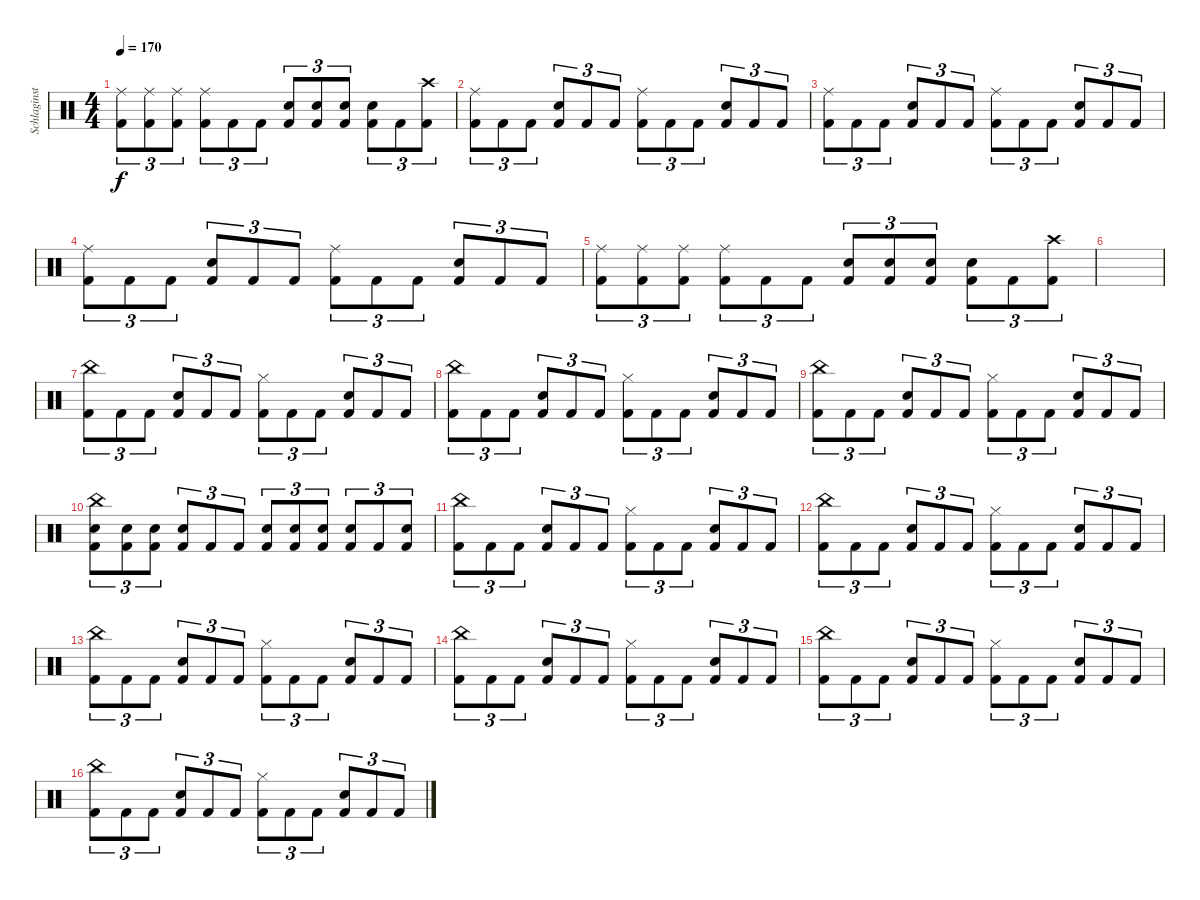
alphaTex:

\track ("Schlaginstrumente - Auswahl" "Schlaginst") {instrument percussion}
\staff {score}
\articulation defaults
\ts (4 4)
\tempo 170
\clef neutral
\ks c
("Kick (hit) 2" "Ride (middle)").8{tu (3 2) dy f} ("Kick (hit) 2" "Ride (middle)").8{tu (3 2)} ("Kick (hit) 2" "Ride (middle)").8{tu (3 2)} ("Kick (hit) 2" "Ride (middle)").8{tu (3 2)} "Kick (hit) 2".8{tu (3 2)} "Kick (hit) 2".8{tu (3 2)} ("Kick (hit) 2" "Snare (hit) 2").8{tu (3 2)} ("Kick (hit) 2" "Snare (hit) 2").8{tu (3 2)} ("Kick (hit) 2" "Snare (hit) 2").8{tu (3 2)} ("Kick (hit) 2" "Snare (hit) 2").8{tu (3 2)} "Kick (hit) 2".8{tu (3 2)} ("Kick (hit) 2" "Crash high (hit)").8{tu (3 2)} |
("Kick (hit) 2" "Ride (middle)").8{tu (3 2)} "Kick (hit) 2".8{tu (3 2)} "Kick (hit) 2".8{tu (3 2)} ("Kick (hit) 2" "Snare (hit) 2").8{tu (3 2)} "Kick (hit) 2".8{tu (3 2)} "Kick (hit) 2".8{tu (3 2)} ("Kick (hit) 2" "Ride (middle)").8{tu (3 2)} "Kick (hit) 2".8{tu (3 2)} "Kick (hit) 2".8{tu (3 2)} ("Kick (hit) 2" "Snare (hit) 2").8{tu (3 2)} "Kick (hit) 2".8{tu (3 2)} "Kick (hit) 2".8{tu (3 2)} |
("Kick (hit) 2" "Ride (middle)").8{tu (3 2)} "Kick (hit) 2".8{tu (3 2)} "Kick (hit) 2".8{tu (3 2)} ("Kick (hit) 2" "Snare (hit) 2").8{tu (3 2)} "Kick (hit) 2".8{tu (3 2)} "Kick (hit) 2".8{tu (3 2)} ("Kick (hit) 2" "Ride (middle)").8{tu (3 2)} "Kick (hit) 2".8{tu (3 2)} "Kick (hit) 2".8{tu (3 2)} ("Kick (hit) 2" "Snare (hit) 2").8{tu (3 2)} "Kick (hit) 2".8{tu (3 2)} "Kick (hit) 2".8{tu (3 2)} |
("Kick (hit) 2" "Ride (middle)").8{tu (3 2)} "Kick (hit) 2".8{tu (3 2)} "Kick (hit) 2".8{tu (3 2)} ("Kick (hit) 2" "Snare (hit) 2").8{tu (3 2)} "Kick (hit) 2".8{tu (3 2)} "Kick (hit) 2".8{tu (3 2)} ("Kick (hit) 2" "Ride (middle)").8{tu (3 2)} "Kick (hit) 2".8{tu (3 2)} "Kick (hit) 2".8{tu (3 2)} ("Kick (hit) 2" "Snare (hit) 2").8{tu (3 2)} "Kick (hit) 2".8{tu (3 2)} "Kick (hit) 2".8{tu (3 2)} |
("Kick (hit) 2" "Ride (middle)").8{tu (3 2)} ("Kick (hit) 2" "Ride (middle)").8{tu (3 2)} ("Kick (hit) 2" "Ride (middle)").8{tu (3 2)} ("Kick (hit) 2" "Ride (middle)").8{tu (3 2)} "Kick (hit) 2".8{tu (3 2)} "Kick (hit) 2".8{tu (3 2)} ("Kick (hit) 2" "Snare (hit) 2").8{tu (3 2)} ("Kick (hit) 2" "Snare (hit) 2").8{tu (3 2)} ("Kick (hit) 2" "Snare (hit) 2").8{tu (3 2)} ("Kick (hit) 2" "Snare (hit) 2").8{tu (3 2)} "Kick (hit) 2".8{tu (3 2)} ("Kick (hit) 2" "Crash high (hit)").8{tu (3 2)} |
|
("Kick (hit) 2" "China (hit)").8{tu (3 2)} "Kick (hit) 2".8{tu (3 2)} "Kick (hit) 2".8{tu (3 2)} ("Kick (hit) 2" "Snare (hit) 2").8{tu (3 2)} "Kick (hit) 2".8{tu (3 2)} "Kick (hit) 2".8{tu (3 2)} ("Kick (hit) 2" "Hi-Hat (closed)").8{tu (3 2)} "Kick (hit) 2".8{tu (3 2)} "Kick (hit) 2".8{tu (3 2)} ("Kick (hit) 2" "Snare (hit) 2").8{tu (3 2)} "Kick (hit) 2".8{tu (3 2)} "Kick (hit) 2".8{tu (3 2)} |
("Kick (hit) 2" "China (hit)").8{tu (3 2)} "Kick (hit) 2".8{tu (3 2)} "Kick (hit) 2".8{tu (3 2)} ("Kick (hit) 2" "Snare (hit) 2").8{tu (3 2)} "Kick (hit) 2".8{tu (3 2)} "Kick (hit) 2".8{tu (3 2)} ("Kick (hit) 2" "Hi-Hat (closed)").8{tu (3 2)} "Kick (hit) 2".8{tu (3 2)} "Kick (hit) 2".8{tu (3 2)} ("Kick (hit) 2" "Snare (hit) 2").8{tu (3 2)} "Kick (hit) 2".8{tu (3 2)} "Kick (hit) 2".8{tu (3 2)} |
("Kick (hit) 2" "China (hit)").8{tu (3 2)} "Kick (hit) 2".8{tu (3 2)} "Kick (hit) 2".8{tu (3 2)} ("Kick (hit) 2" "Snare (hit) 2").8{tu (3 2)} "Kick (hit) 2".8{tu (3 2)} "Kick (hit) 2".8{tu (3 2)} ("Kick (hit) 2" "Hi-Hat (closed)").8{tu (3 2)} "Kick (hit) 2".8{tu (3 2)} "Kick (hit) 2".8{tu (3 2)} ("Kick (hit) 2" "Snare (hit) 2").8{tu (3 2)} "Kick (hit) 2".8{tu (3 2)} "Kick (hit) 2".8{tu (3 2)} |
("Kick (hit) 2" "Snare (hit) 2" "China (hit)").8{tu (3 2)} ("Kick (hit) 2" "Snare (hit) 2").8{tu (3 2)} ("Kick (hit) 2" "Snare (hit) 2").8{tu (3 2)} ("Kick (hit) 2" "Snare (hit) 2").8{tu (3 2)} "Kick (hit) 2".8{tu (3 2)} "Kick (hit) 2".8{tu (3 2)} ("Kick (hit) 2" "Snare (hit) 2").8{tu (3 2)} ("Kick (hit) 2" "Snare (hit) 2").8{tu (3 2)} ("Kick (hit) 2" "Snare (hit) 2").8{tu (3 2)} ("Kick (hit) 2" "Snare (hit) 2").8{tu (3 2)} "Kick (hit) 2".8{tu (3 2)} ("Kick (hit) 2" "Snare (hit) 2").8{tu (3 2)} |
("Kick (hit) 2" "China (hit)").8{tu (3 2)} "Kick (hit) 2".8{tu (3 2)} "Kick (hit) 2".8{tu (3 2)} ("Kick (hit) 2" "Snare (hit) 2").8{tu (3 2)} "Kick (hit) 2".8{tu (3 2)} "Kick (hit) 2".8{tu (3 2)} ("Kick (hit) 2" "Hi-Hat (closed)").8{tu (3 2)} "Kick (hit) 2".8{tu (3 2)} "Kick (hit) 2".8{tu (3 2)} ("Kick (hit) 2" "Snare (hit) 2").8{tu (3 2)} "Kick (hit) 2".8{tu (3 2)} "Kick (hit) 2".8{tu (3 2)} |
("Kick (hit) 2" "China (hit)").8{tu (3 2)} "Kick (hit) 2".8{tu (3 2)} "Kick (hit) 2".8{tu (3 2)} ("Kick (hit) 2" "Snare (hit) 2").8{tu (3 2)} "Kick (hit) 2".8{tu (3 2)} "Kick (hit) 2".8{tu (3 2)} ("Kick (hit) 2" "Hi-Hat (closed)").8{tu (3 2)} "Kick (hit) 2".8{tu (3 2)} "Kick (hit) 2".8{tu (3 2)} ("Kick (hit) 2" "Snare (hit) 2").8{tu (3 2)} "Kick (hit) 2".8{tu (3 2)} "Kick (hit) 2".8{tu (3 2)} |
("Kick (hit) 2" "China (hit)").8{tu (3 2)} "Kick (hit) 2".8{tu (3 2)} "Kick (hit) 2".8{tu (3 2)} ("Kick (hit) 2" "Snare (hit) 2").8{tu (3 2)} "Kick (hit) 2".8{tu (3 2)} "Kick (hit) 2".8{tu (3 2)} ("Kick (hit) 2" "Hi-Hat (closed)").8{tu (3 2)} "Kick (hit) 2".8{tu (3 2)} "Kick (hit) 2".8{tu (3 2)} ("Kick (hit) 2" "Snare (hit) 2").8{tu (3 2)} "Kick (hit) 2".8{tu (3 2)} "Kick (hit) 2".8{tu (3 2)} |
("Kick (hit) 2" "China (hit)").8{tu (3 2)} "Kick (hit) 2".8{tu (3 2)} "Kick (hit) 2".8{tu (3 2)} ("Kick (hit) 2" "Snare (hit) 2").8{tu (3 2)} "Kick (hit) 2".8{tu (3 2)} "Kick (hit) 2".8{tu (3 2)} ("Kick (hit) 2" "Hi-Hat (closed)").8{tu (3 2)} "Kick (hit) 2".8{tu (3 2)} "Kick (hit) 2".8{tu (3 2)} ("Kick (hit) 2" "Snare (hit) 2").8{tu (3 2)} "Kick (hit) 2".8{tu (3 2)} "Kick (hit) 2".8{tu (3 2)} |
("Kick (hit) 2" "China (hit)").8{tu (3 2)} "Kick (hit) 2".8{tu (3 2)} "Kick (hit) 2".8{tu (3 2)} ("Kick (hit) 2" "Snare (hit) 2").8{tu (3 2)} "Kick (hit) 2".8{tu (3 2)} "Kick (hit) 2".8{tu (3 2)} ("Kick (hit) 2" "Hi-Hat (closed)").8{tu (3 2)} "Kick (hit) 2".8{tu (3 2)} "Kick (hit) 2".8{tu (3 2)} ("Kick (hit) 2" "Snare (hit) 2").8{tu (3 2)} "Kick (hit) 2".8{tu (3 2)} "Kick (hit) 2".8{tu (3 2)} |
("Kick (hit) 2" "China (hit)").8{tu (3 2)} "Kick (hit) 2".8{tu (3 2)} "Kick (hit) 2".8{tu (3 2)} ("Kick (hit) 2" "Snare (hit) 2").8{tu (3 2)} "Kick (hit) 2".8{tu (3 2)} "Kick (hit) 2".8{tu (3 2)} ("Kick (hit) 2" "Hi-Hat (closed)").8{tu (3 2)} "Kick (hit) 2".8{tu (3 2)} "Kick (hit) 2".8{tu (3 2)} ("Kick (hit) 2" "Snare (hit) 2").8{tu (3 2)} "Kick (hit) 2".8{tu (3 2)} "Kick (hit) 2".8{tu (3 2)}
